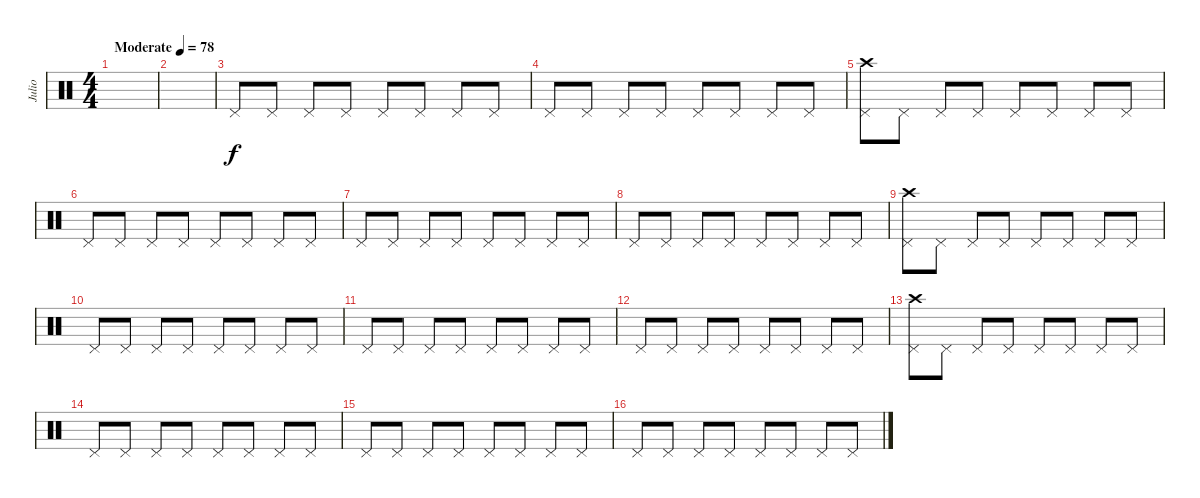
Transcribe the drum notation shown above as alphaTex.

\track ("Julio" "Julio") {instrument percussion}
\staff {score}
\articulation defaults
\ts (4 4)
\tempo (78 "Moderate")
\clef neutral
\ks c
|
|
"Pedal Hi-Hat (hit)".8 "Pedal Hi-Hat (hit)".8 "Pedal Hi-Hat (hit)".8 "Pedal Hi-Hat (hit)".8 "Pedal Hi-Hat (hit)".8 "Pedal Hi-Hat (hit)".8 "Pedal Hi-Hat (hit)".8 "Pedal Hi-Hat (hit)".8 |
"Pedal Hi-Hat (hit)".8 "Pedal Hi-Hat (hit)".8 "Pedal Hi-Hat (hit)".8 "Pedal Hi-Hat (hit)".8 "Pedal Hi-Hat (hit)".8 "Pedal Hi-Hat (hit)".8 "Pedal Hi-Hat (hit)".8 "Pedal Hi-Hat (hit)".8 |
("Crash high (hit)" "Pedal Hi-Hat (hit)").8 "Pedal Hi-Hat (hit)".8 "Pedal Hi-Hat (hit)".8 "Pedal Hi-Hat (hit)".8 "Pedal Hi-Hat (hit)".8 "Pedal Hi-Hat (hit)".8 "Pedal Hi-Hat (hit)".8 "Pedal Hi-Hat (hit)".8 |
"Pedal Hi-Hat (hit)".8 "Pedal Hi-Hat (hit)".8 "Pedal Hi-Hat (hit)".8 "Pedal Hi-Hat (hit)".8 "Pedal Hi-Hat (hit)".8 "Pedal Hi-Hat (hit)".8 "Pedal Hi-Hat (hit)".8 "Pedal Hi-Hat (hit)".8 |
"Pedal Hi-Hat (hit)".8 "Pedal Hi-Hat (hit)".8 "Pedal Hi-Hat (hit)".8 "Pedal Hi-Hat (hit)".8 "Pedal Hi-Hat (hit)".8 "Pedal Hi-Hat (hit)".8 "Pedal Hi-Hat (hit)".8 "Pedal Hi-Hat (hit)".8 |
"Pedal Hi-Hat (hit)".8 "Pedal Hi-Hat (hit)".8 "Pedal Hi-Hat (hit)".8 "Pedal Hi-Hat (hit)".8 "Pedal Hi-Hat (hit)".8 "Pedal Hi-Hat (hit)".8 "Pedal Hi-Hat (hit)".8 "Pedal Hi-Hat (hit)".8 |
("Crash high (hit)" "Pedal Hi-Hat (hit)").8 "Pedal Hi-Hat (hit)".8 "Pedal Hi-Hat (hit)".8 "Pedal Hi-Hat (hit)".8 "Pedal Hi-Hat (hit)".8 "Pedal Hi-Hat (hit)".8 "Pedal Hi-Hat (hit)".8 "Pedal Hi-Hat (hit)".8 |
"Pedal Hi-Hat (hit)".8 "Pedal Hi-Hat (hit)".8 "Pedal Hi-Hat (hit)".8 "Pedal Hi-Hat (hit)".8 "Pedal Hi-Hat (hit)".8 "Pedal Hi-Hat (hit)".8 "Pedal Hi-Hat (hit)".8 "Pedal Hi-Hat (hit)".8 |
"Pedal Hi-Hat (hit)".8 "Pedal Hi-Hat (hit)".8 "Pedal Hi-Hat (hit)".8 "Pedal Hi-Hat (hit)".8 "Pedal Hi-Hat (hit)".8 "Pedal Hi-Hat (hit)".8 "Pedal Hi-Hat (hit)".8 "Pedal Hi-Hat (hit)".8 |
"Pedal Hi-Hat (hit)".8 "Pedal Hi-Hat (hit)".8 "Pedal Hi-Hat (hit)".8 "Pedal Hi-Hat (hit)".8 "Pedal Hi-Hat (hit)".8 "Pedal Hi-Hat (hit)".8 "Pedal Hi-Hat (hit)".8 "Pedal Hi-Hat (hit)".8 |
("Crash high (hit)" "Pedal Hi-Hat (hit)").8 "Pedal Hi-Hat (hit)".8 "Pedal Hi-Hat (hit)".8 "Pedal Hi-Hat (hit)".8 "Pedal Hi-Hat (hit)".8 "Pedal Hi-Hat (hit)".8 "Pedal Hi-Hat (hit)".8 "Pedal Hi-Hat (hit)".8 |
"Pedal Hi-Hat (hit)".8 "Pedal Hi-Hat (hit)".8 "Pedal Hi-Hat (hit)".8 "Pedal Hi-Hat (hit)".8 "Pedal Hi-Hat (hit)".8 "Pedal Hi-Hat (hit)".8 "Pedal Hi-Hat (hit)".8 "Pedal Hi-Hat (hit)".8 |
"Pedal Hi-Hat (hit)".8 "Pedal Hi-Hat (hit)".8 "Pedal Hi-Hat (hit)".8 "Pedal Hi-Hat (hit)".8 "Pedal Hi-Hat (hit)".8 "Pedal Hi-Hat (hit)".8 "Pedal Hi-Hat (hit)".8 "Pedal Hi-Hat (hit)".8 |
"Pedal Hi-Hat (hit)".8 "Pedal Hi-Hat (hit)".8 "Pedal Hi-Hat (hit)".8 "Pedal Hi-Hat (hit)".8 "Pedal Hi-Hat (hit)".8 "Pedal Hi-Hat (hit)".8 "Pedal Hi-Hat (hit)".8 "Pedal Hi-Hat (hit)".8
